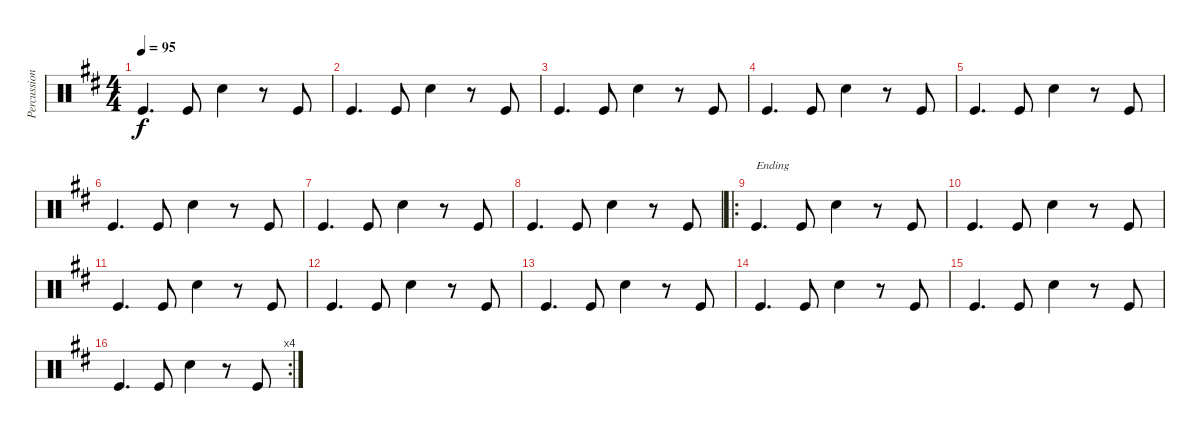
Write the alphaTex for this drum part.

\track ("Percussion" "Percussion") {instrument percussion}
\staff {score}
\articulation defaults
\ts (4 4)
\tempo 95
\clef neutral
\ks d "Kick (hit)".4{d dy f} "Kick (hit)".8 "Snare (hit) 2".4
r.8 "Kick (hit)".8 |
"Kick (hit)".4{d} "Kick (hit)".8 "Snare (hit) 2".4 r.8 "Kick (hit)".8 |
"Kick (hit)".4{d} "Kick (hit)".8 "Snare (hit) 2".4 r.8 "Kick (hit)".8 |
"Kick (hit)".4{d} "Kick (hit)".8 "Snare (hit) 2".4 r.8 "Kick (hit)".8 |
"Kick (hit)".4{d} "Kick (hit)".8 "Snare (hit) 2".4 r.8 "Kick (hit)".8 |
"Kick (hit)".4{d} "Kick (hit)".8 "Snare (hit) 2".4 r.8 "Kick (hit)".8 |
"Kick (hit)".4{d} "Kick (hit)".8 "Snare (hit) 2".4 r.8 "Kick (hit)".8 |
"Kick (hit)".4{d} "Kick (hit)".8 "Snare (hit) 2".4 r.8 "Kick (hit)".8 |
\ro "Kick (hit)".4{d txt "Ending"} "Kick (hit)".8 "Snare (hit) 2".4
r.8 "Kick (hit)".8 |
"Kick (hit)".4{d} "Kick (hit)".8 "Snare (hit) 2".4 r.8 "Kick (hit)".8 |
"Kick (hit)".4{d} "Kick (hit)".8 "Snare (hit) 2".4 r.8 "Kick (hit)".8 |
"Kick (hit)".4{d} "Kick (hit)".8 "Snare (hit) 2".4 r.8 "Kick (hit)".8 |
"Kick (hit)".4{d} "Kick (hit)".8 "Snare (hit) 2".4 r.8 "Kick (hit)".8 |
"Kick (hit)".4{d} "Kick (hit)".8 "Snare (hit) 2".4 r.8 "Kick (hit)".8 |
"Kick (hit)".4{d} "Kick (hit)".8 "Snare (hit) 2".4 r.8 "Kick (hit)".8 |
\rc 4 "Kick (hit)".4{d} "Kick (hit)".8 "Snare (hit) 2".4
r.8 "Kick (hit)".8
